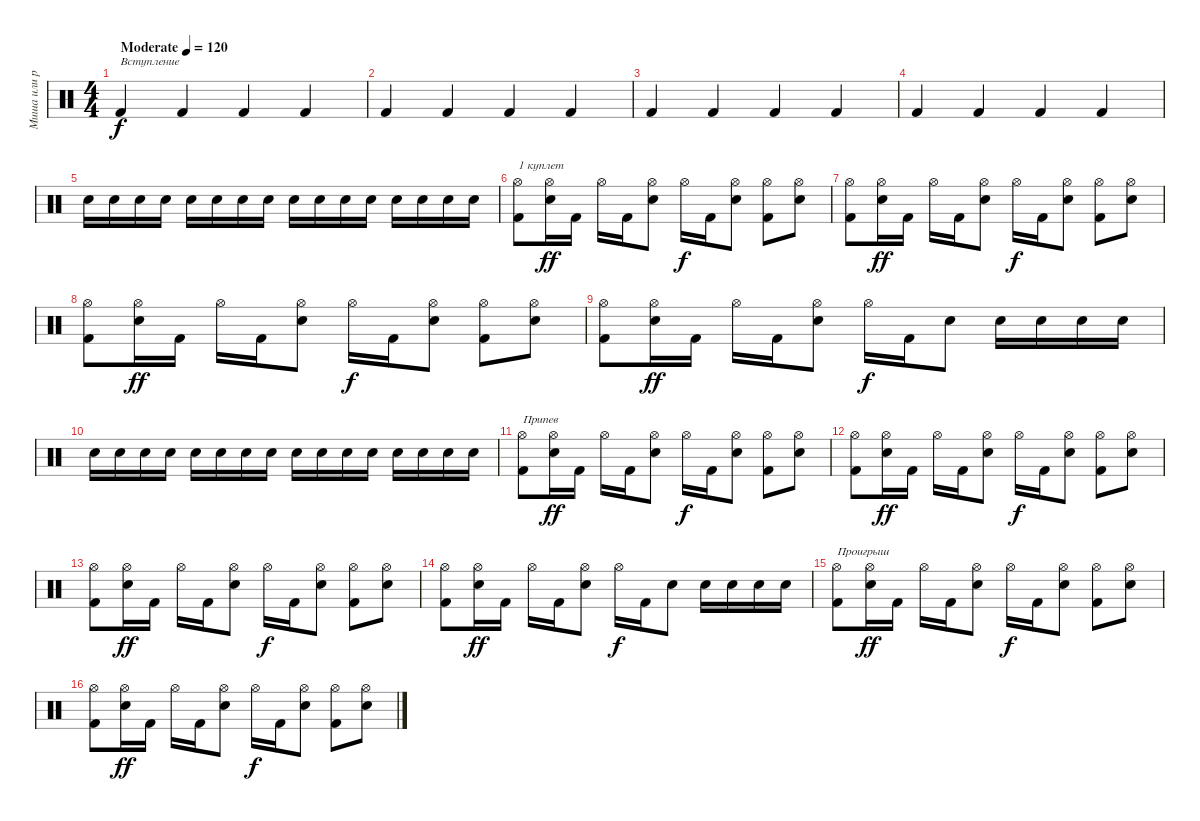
\track ("Миша или рома" "Миша или р") {instrument percussion}
\staff {score}
\articulation defaults
\ts (4 4)
\tempo (120 "Moderate")
\clef neutral
\ks c "Kick (hit) 2".4{txt "Вступление" dy f} "Kick (hit) 2".4 "Kick (hit) 2".4 "Kick (hit) 2".4
|
"Kick (hit) 2".4 "Kick (hit) 2".4 "Kick (hit) 2".4 "Kick (hit) 2".4 |
"Kick (hit) 2".4 "Kick (hit) 2".4 "Kick (hit) 2".4 "Kick (hit) 2".4 |
"Kick (hit) 2".4 "Kick (hit) 2".4 "Kick (hit) 2".4 "Kick (hit) 2".4 |
"Snare (hit) 2".16 "Snare (hit) 2".16 "Snare (hit) 2".16 "Snare (hit) 2".16 "Snare (hit) 2".16 "Snare (hit) 2".16 "Snare (hit) 2".16 "Snare (hit) 2".16 "Snare (hit) 2".16 "Snare (hit) 2".16 "Snare (hit) 2".16 "Snare (hit) 2".16 "Snare (hit) 2".16 "Snare (hit) 2".16 "Snare (hit) 2".16 "Snare (hit) 2".16 |
("Hi-Hat (open)" "Kick (hit) 2").8{txt "1 куплет"} ("Hi-Hat (open)" "Snare (hit) 2").16{dy ff} "Kick (hit) 2".16 "Hi-Hat (open)".16 "Kick (hit) 2".16 ("Hi-Hat (open)" "Snare (hit) 2").8 "Hi-Hat (open)".16{dy f} "Kick (hit) 2".16 ("Hi-Hat (open)" "Snare (hit) 2").8 ("Kick (hit) 2" "Hi-Hat (open)").8 ("Snare (hit) 2" "Hi-Hat (open)").8 |
("Hi-Hat (open)" "Kick (hit) 2").8 ("Hi-Hat (open)" "Snare (hit) 2").16{dy ff} "Kick (hit) 2".16 "Hi-Hat (open)".16 "Kick (hit) 2".16 ("Hi-Hat (open)" "Snare (hit) 2").8 "Hi-Hat (open)".16{dy f} "Kick (hit) 2".16 ("Hi-Hat (open)" "Snare (hit) 2").8 ("Kick (hit) 2" "Hi-Hat (open)").8 ("Hi-Hat (open)" "Snare (hit) 2").8 |
("Hi-Hat (open)" "Kick (hit) 2").8 ("Hi-Hat (open)" "Snare (hit) 2").16{dy ff} "Kick (hit) 2".16 "Hi-Hat (open)".16 "Kick (hit) 2".16 ("Hi-Hat (open)" "Snare (hit) 2").8 "Hi-Hat (open)".16{dy f} "Kick (hit) 2".16 ("Hi-Hat (open)" "Snare (hit) 2").8 ("Kick (hit) 2" "Hi-Hat (open)").8 ("Snare (hit) 2" "Hi-Hat (open)").8 |
("Hi-Hat (open)" "Kick (hit) 2").8 ("Hi-Hat (open)" "Snare (hit) 2").16{dy ff} "Kick (hit) 2".16 "Hi-Hat (open)".16 "Kick (hit) 2".16 ("Hi-Hat (open)" "Snare (hit) 2").8 "Hi-Hat (open)".16{dy f} "Kick (hit) 2".16 "Snare (hit) 2".8 "Snare (hit) 2".16 "Snare (hit) 2".16 "Snare (hit) 2".16 "Snare (hit) 2".16 |
"Snare (hit) 2".16 "Snare (hit) 2".16 "Snare (hit) 2".16 "Snare (hit) 2".16 "Snare (hit) 2".16 "Snare (hit) 2".16 "Snare (hit) 2".16 "Snare (hit) 2".16 "Snare (hit) 2".16 "Snare (hit) 2".16 "Snare (hit) 2".16 "Snare (hit) 2".16 "Snare (hit) 2".16 "Snare (hit) 2".16 "Snare (hit) 2".16 "Snare (hit) 2".16 |
("Hi-Hat (open)" "Kick (hit) 2").8{txt "Припев"} ("Hi-Hat (open)" "Snare (hit) 2").16{dy ff} "Kick (hit) 2".16 "Hi-Hat (open)".16 "Kick (hit) 2".16 ("Hi-Hat (open)" "Snare (hit) 2").8 "Hi-Hat (open)".16{dy f} "Kick (hit) 2".16 ("Hi-Hat (open)" "Snare (hit) 2").8 ("Kick (hit) 2" "Hi-Hat (open)").8 ("Snare (hit) 2" "Hi-Hat (open)").8 |
("Hi-Hat (open)" "Kick (hit) 2").8 ("Hi-Hat (open)" "Snare (hit) 2").16{dy ff} "Kick (hit) 2".16 "Hi-Hat (open)".16 "Kick (hit) 2".16 ("Hi-Hat (open)" "Snare (hit) 2").8 "Hi-Hat (open)".16{dy f} "Kick (hit) 2".16 ("Hi-Hat (open)" "Snare (hit) 2").8 ("Kick (hit) 2" "Hi-Hat (open)").8 ("Hi-Hat (open)" "Snare (hit) 2").8 |
("Hi-Hat (open)" "Kick (hit) 2").8 ("Hi-Hat (open)" "Snare (hit) 2").16{dy ff} "Kick (hit) 2".16 "Hi-Hat (open)".16 "Kick (hit) 2".16 ("Hi-Hat (open)" "Snare (hit) 2").8 "Hi-Hat (open)".16{dy f} "Kick (hit) 2".16 ("Hi-Hat (open)" "Snare (hit) 2").8 ("Kick (hit) 2" "Hi-Hat (open)").8 ("Snare (hit) 2" "Hi-Hat (open)").8 |
("Hi-Hat (open)" "Kick (hit) 2").8 ("Hi-Hat (open)" "Snare (hit) 2").16{dy ff} "Kick (hit) 2".16 "Hi-Hat (open)".16 "Kick (hit) 2".16 ("Hi-Hat (open)" "Snare (hit) 2").8 "Hi-Hat (open)".16{dy f} "Kick (hit) 2".16 "Snare (hit) 2".8 "Snare (hit) 2".16 "Snare (hit) 2".16 "Snare (hit) 2".16 "Snare (hit) 2".16 |
("Hi-Hat (open)" "Kick (hit) 2").8{txt "Проигрыш"} ("Hi-Hat (open)" "Snare (hit) 2").16{dy ff} "Kick (hit) 2".16 "Hi-Hat (open)".16 "Kick (hit) 2".16 ("Hi-Hat (open)" "Snare (hit) 2").8 "Hi-Hat (open)".16{dy f} "Kick (hit) 2".16 ("Hi-Hat (open)" "Snare (hit) 2").8 ("Kick (hit) 2" "Hi-Hat (open)").8 ("Snare (hit) 2" "Hi-Hat (open)").8 |
("Hi-Hat (open)" "Kick (hit) 2").8 ("Hi-Hat (open)" "Snare (hit) 2").16{dy ff} "Kick (hit) 2".16 "Hi-Hat (open)".16 "Kick (hit) 2".16 ("Hi-Hat (open)" "Snare (hit) 2").8 "Hi-Hat (open)".16{dy f} "Kick (hit) 2".16 ("Hi-Hat (open)" "Snare (hit) 2").8 ("Kick (hit) 2" "Hi-Hat (open)").8 ("Hi-Hat (open)" "Snare (hit) 2").8
